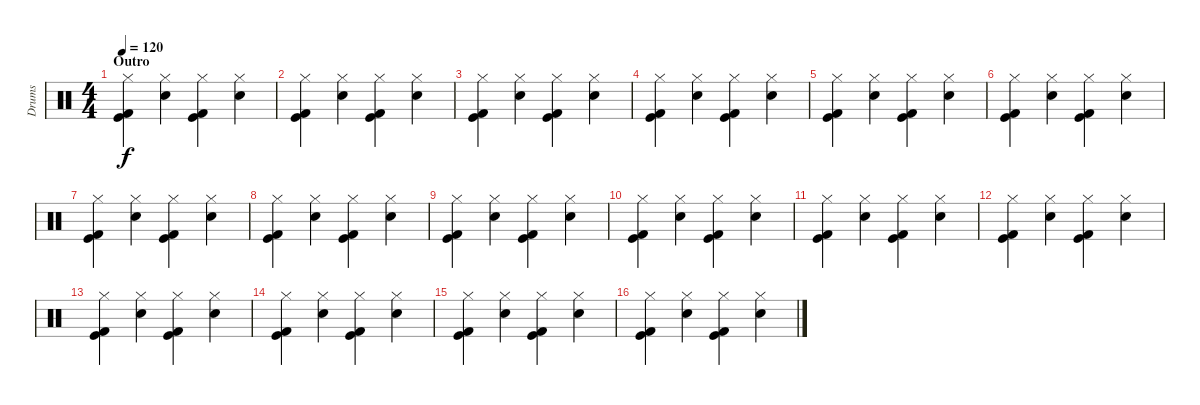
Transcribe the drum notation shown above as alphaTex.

\track ("Drums" "Drums") {instrument percussion}
\staff {score}
\articulation defaults
\ts (4 4)
\section ("" "Outro")
\tempo 120
\clef neutral
\ks c
("Kick (hit)" "Kick (hit) 2" "Hi-Hat (closed)").4{dy f} ("Snare (hit) 2" "Hi-Hat (closed)").4 ("Kick (hit)" "Kick (hit) 2" "Hi-Hat (closed)").4 ("Snare (hit) 2" "Hi-Hat (closed)").4 |
("Kick (hit)" "Kick (hit) 2" "Hi-Hat (closed)").4{volume 12} ("Snare (hit) 2" "Hi-Hat (closed)").4 ("Kick (hit)" "Kick (hit) 2" "Hi-Hat (closed)").4 ("Snare (hit) 2" "Hi-Hat (closed)").4 |
("Kick (hit)" "Kick (hit) 2" "Hi-Hat (closed)").4{volume 11} ("Snare (hit) 2" "Hi-Hat (closed)").4 ("Kick (hit)" "Kick (hit) 2" "Hi-Hat (closed)").4 ("Snare (hit) 2" "Hi-Hat (closed)").4 |
("Kick (hit)" "Kick (hit) 2" "Hi-Hat (closed)").4{volume 10} ("Snare (hit) 2" "Hi-Hat (closed)").4 ("Kick (hit)" "Kick (hit) 2" "Hi-Hat (closed)").4 ("Snare (hit) 2" "Hi-Hat (closed)").4 |
("Kick (hit)" "Kick (hit) 2" "Hi-Hat (closed)").4{volume 9} ("Snare (hit) 2" "Hi-Hat (closed)").4 ("Kick (hit)" "Kick (hit) 2" "Hi-Hat (closed)").4 ("Snare (hit) 2" "Hi-Hat (closed)").4 |
("Kick (hit)" "Kick (hit) 2" "Hi-Hat (closed)").4{volume 8} ("Snare (hit) 2" "Hi-Hat (closed)").4 ("Kick (hit)" "Kick (hit) 2" "Hi-Hat (closed)").4 ("Snare (hit) 2" "Hi-Hat (closed)").4 |
("Kick (hit)" "Kick (hit) 2" "Hi-Hat (closed)").4{volume 7} ("Snare (hit) 2" "Hi-Hat (closed)").4 ("Kick (hit)" "Kick (hit) 2" "Hi-Hat (closed)").4 ("Snare (hit) 2" "Hi-Hat (closed)").4 |
("Kick (hit)" "Kick (hit) 2" "Hi-Hat (closed)").4{volume 6} ("Snare (hit) 2" "Hi-Hat (closed)").4 ("Kick (hit)" "Kick (hit) 2" "Hi-Hat (closed)").4 ("Snare (hit) 2" "Hi-Hat (closed)").4 |
("Kick (hit)" "Kick (hit) 2" "Hi-Hat (closed)").4{volume 5} ("Snare (hit) 2" "Hi-Hat (closed)").4 ("Kick (hit)" "Kick (hit) 2" "Hi-Hat (closed)").4 ("Snare (hit) 2" "Hi-Hat (closed)").4 |
("Kick (hit)" "Kick (hit) 2" "Hi-Hat (closed)").4{volume 4} ("Snare (hit) 2" "Hi-Hat (closed)").4 ("Kick (hit)" "Kick (hit) 2" "Hi-Hat (closed)").4 ("Snare (hit) 2" "Hi-Hat (closed)").4 |
("Kick (hit)" "Kick (hit) 2" "Hi-Hat (closed)").4{volume 3} ("Snare (hit) 2" "Hi-Hat (closed)").4 ("Kick (hit)" "Kick (hit) 2" "Hi-Hat (closed)").4 ("Snare (hit) 2" "Hi-Hat (closed)").4 |
("Kick (hit)" "Kick (hit) 2" "Hi-Hat (closed)").4{volume 2} ("Snare (hit) 2" "Hi-Hat (closed)").4 ("Kick (hit)" "Kick (hit) 2" "Hi-Hat (closed)").4 ("Snare (hit) 2" "Hi-Hat (closed)").4 |
("Kick (hit)" "Kick (hit) 2" "Hi-Hat (closed)").4{volume 1} ("Snare (hit) 2" "Hi-Hat (closed)").4 ("Kick (hit)" "Kick (hit) 2" "Hi-Hat (closed)").4 ("Snare (hit) 2" "Hi-Hat (closed)").4 |
("Kick (hit)" "Kick (hit) 2" "Hi-Hat (closed)").4{volume 0} ("Snare (hit) 2" "Hi-Hat (closed)").4 ("Kick (hit)" "Kick (hit) 2" "Hi-Hat (closed)").4 ("Snare (hit) 2" "Hi-Hat (closed)").4 |
("Kick (hit)" "Kick (hit) 2" "Hi-Hat (closed)").4 ("Snare (hit) 2" "Hi-Hat (closed)").4 ("Kick (hit)" "Kick (hit) 2" "Hi-Hat (closed)").4 ("Snare (hit) 2" "Hi-Hat (closed)").4 |
("Kick (hit)" "Kick (hit) 2" "Hi-Hat (closed)").4 ("Snare (hit) 2" "Hi-Hat (closed)").4 ("Kick (hit)" "Kick (hit) 2" "Hi-Hat (closed)").4 ("Snare (hit) 2" "Hi-Hat (closed)").4
